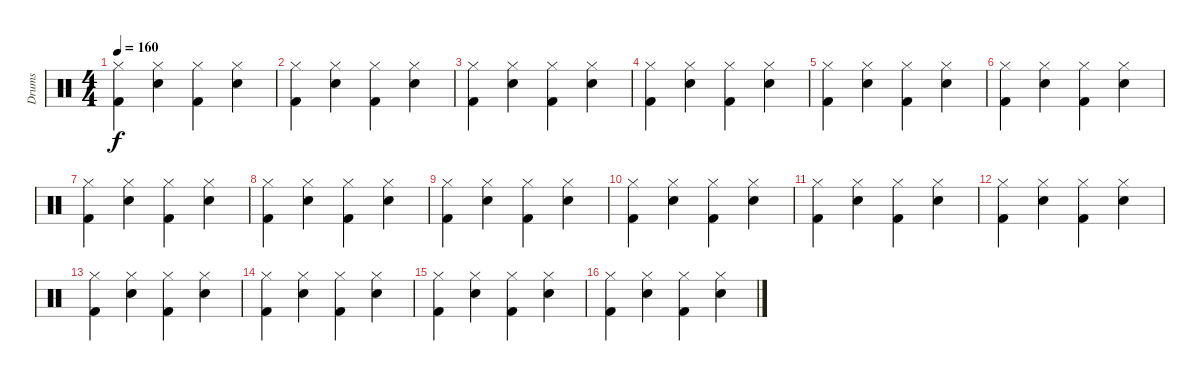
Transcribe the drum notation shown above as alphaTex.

\track ("Drums" "Drums") {instrument percussion}
\staff {score}
\articulation defaults
\ts (4 4)
\tempo 160
\clef neutral
\ks c
("Hi-Hat (closed)" "Kick (hit) 2").4{dy f} ("Hi-Hat (closed)" "Snare (hit) 2").4 ("Hi-Hat (closed)" "Kick (hit) 2").4 ("Hi-Hat (closed)" "Snare (hit) 2").4 |
("Hi-Hat (closed)" "Kick (hit) 2").4 ("Hi-Hat (closed)" "Snare (hit) 2").4 ("Hi-Hat (closed)" "Kick (hit) 2").4 ("Hi-Hat (closed)" "Snare (hit) 2").4 |
("Hi-Hat (closed)" "Kick (hit) 2").4 ("Hi-Hat (closed)" "Snare (hit) 2").4 ("Hi-Hat (closed)" "Kick (hit) 2").4 ("Hi-Hat (closed)" "Snare (hit) 2").4 |
("Hi-Hat (closed)" "Kick (hit) 2").4 ("Hi-Hat (closed)" "Snare (hit) 2").4 ("Hi-Hat (closed)" "Kick (hit) 2").4 ("Hi-Hat (closed)" "Snare (hit) 2").4 |
("Hi-Hat (closed)" "Kick (hit) 2").4 ("Hi-Hat (closed)" "Snare (hit) 2").4 ("Hi-Hat (closed)" "Kick (hit) 2").4 ("Hi-Hat (closed)" "Snare (hit) 2").4 |
("Hi-Hat (closed)" "Kick (hit) 2").4 ("Hi-Hat (closed)" "Snare (hit) 2").4 ("Hi-Hat (closed)" "Kick (hit) 2").4 ("Hi-Hat (closed)" "Snare (hit) 2").4 |
("Hi-Hat (closed)" "Kick (hit) 2").4 ("Hi-Hat (closed)" "Snare (hit) 2").4 ("Hi-Hat (closed)" "Kick (hit) 2").4 ("Hi-Hat (closed)" "Snare (hit) 2").4 |
("Hi-Hat (closed)" "Kick (hit) 2").4 ("Hi-Hat (closed)" "Snare (hit) 2").4 ("Hi-Hat (closed)" "Kick (hit) 2").4 ("Hi-Hat (closed)" "Snare (hit) 2").4 |
("Hi-Hat (closed)" "Kick (hit) 2").4 ("Hi-Hat (closed)" "Snare (hit) 2").4 ("Hi-Hat (closed)" "Kick (hit) 2").4 ("Hi-Hat (closed)" "Snare (hit) 2").4 |
("Hi-Hat (closed)" "Kick (hit) 2").4 ("Hi-Hat (closed)" "Snare (hit) 2").4 ("Hi-Hat (closed)" "Kick (hit) 2").4 ("Hi-Hat (closed)" "Snare (hit) 2").4 |
("Hi-Hat (closed)" "Kick (hit) 2").4 ("Hi-Hat (closed)" "Snare (hit) 2").4 ("Hi-Hat (closed)" "Kick (hit) 2").4 ("Hi-Hat (closed)" "Snare (hit) 2").4 |
("Hi-Hat (closed)" "Kick (hit) 2").4 ("Hi-Hat (closed)" "Snare (hit) 2").4 ("Hi-Hat (closed)" "Kick (hit) 2").4 ("Hi-Hat (closed)" "Snare (hit) 2").4 |
("Hi-Hat (closed)" "Kick (hit) 2").4 ("Hi-Hat (closed)" "Snare (hit) 2").4 ("Hi-Hat (closed)" "Kick (hit) 2").4 ("Hi-Hat (closed)" "Snare (hit) 2").4 |
("Hi-Hat (closed)" "Kick (hit) 2").4 ("Hi-Hat (closed)" "Snare (hit) 2").4 ("Hi-Hat (closed)" "Kick (hit) 2").4 ("Hi-Hat (closed)" "Snare (hit) 2").4 |
("Hi-Hat (closed)" "Kick (hit) 2").4 ("Hi-Hat (closed)" "Snare (hit) 2").4 ("Hi-Hat (closed)" "Kick (hit) 2").4 ("Hi-Hat (closed)" "Snare (hit) 2").4 |
("Hi-Hat (closed)" "Kick (hit) 2").4 ("Hi-Hat (closed)" "Snare (hit) 2").4 ("Hi-Hat (closed)" "Kick (hit) 2").4 ("Hi-Hat (closed)" "Snare (hit) 2").4
